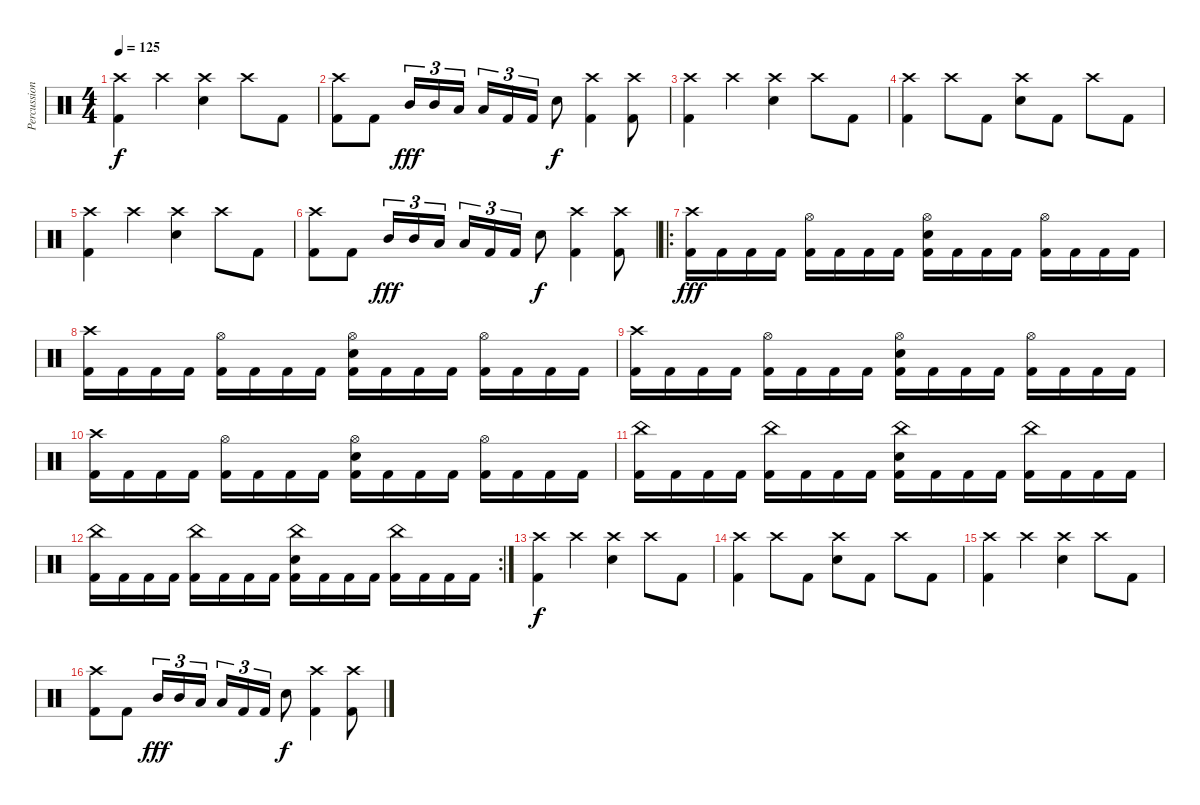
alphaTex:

\track ("Percussions" "Percussion") {instrument percussion}
\staff {score}
\articulation defaults
\ts (4 4)
\tempo 125
\clef neutral
\ks c
("Crash high (hit)" "Kick (hit) 2").4{dy f} "Crash high (hit)".4 ("Crash high (hit)" "Electric Snare (hit)").4 "Crash high (hit)".8 "Kick (hit) 2".8 |
("Crash high (hit)" "Kick (hit) 2").8 "Kick (hit) 2".8 "Mid Tom (hit)".16{tu (3 2) dy fff} "Mid Tom (hit)".16{tu (3 2)} "Low Tom (hit)".16{tu (3 2) beam splitsecondary} "Low Tom (hit)".16{tu (3 2)} "Kick (hit) 2".16{tu (3 2)} "Kick (hit) 2".16{tu (3 2)} "Electric Snare (hit)".8{dy f} ("Crash high (hit)" "Kick (hit) 2").4 ("Crash high (hit)" "Kick (hit) 2").8 |
("Crash high (hit)" "Kick (hit) 2").4 "Crash high (hit)".4 ("Crash high (hit)" "Electric Snare (hit)").4 "Crash high (hit)".8 "Kick (hit) 2".8 |
("Crash high (hit)" "Kick (hit) 2").4 "Crash high (hit)".8 "Kick (hit) 2".8 ("Crash high (hit)" "Electric Snare (hit)").8 "Kick (hit) 2".8 "Crash high (hit)".8 "Kick (hit) 2".8 |
("Crash high (hit)" "Kick (hit) 2").4 "Crash high (hit)".4 ("Crash high (hit)" "Electric Snare (hit)").4 "Crash high (hit)".8 "Kick (hit) 2".8 |
("Crash high (hit)" "Kick (hit) 2").8 "Kick (hit) 2".8 "Mid Tom (hit)".16{tu (3 2) dy fff} "Mid Tom (hit)".16{tu (3 2)} "Low Tom (hit)".16{tu (3 2) beam splitsecondary} "Low Tom (hit)".16{tu (3 2)} "Kick (hit) 2".16{tu (3 2)} "Kick (hit) 2".16{tu (3 2)} "Electric Snare (hit)".8{dy f} ("Crash high (hit)" "Kick (hit) 2").4 ("Crash high (hit)" "Kick (hit) 2").8 |
\ro
("Crash high (hit)" "Kick (hit) 2").16{dy fff} "Kick (hit) 2".16 "Kick (hit) 2".16 "Kick (hit) 2".16 ("Hi-Hat (open)" "Kick (hit) 2").16 "Kick (hit) 2".16 "Kick (hit) 2".16 "Kick (hit) 2".16 ("Hi-Hat (open)" "Electric Snare (hit)" "Kick (hit) 2").16 "Kick (hit) 2".16 "Kick (hit) 2".16 "Kick (hit) 2".16 ("Hi-Hat (open)" "Kick (hit) 2").16 "Kick (hit) 2".16 "Kick (hit) 2".16 "Kick (hit) 2".16 |
("Crash high (hit)" "Kick (hit) 2").16 "Kick (hit) 2".16 "Kick (hit) 2".16 "Kick (hit) 2".16 ("Hi-Hat (open)" "Kick (hit) 2").16 "Kick (hit) 2".16 "Kick (hit) 2".16 "Kick (hit) 2".16 ("Hi-Hat (open)" "Electric Snare (hit)" "Kick (hit) 2").16 "Kick (hit) 2".16 "Kick (hit) 2".16 "Kick (hit) 2".16 ("Hi-Hat (open)" "Kick (hit) 2").16 "Kick (hit) 2".16 "Kick (hit) 2".16 "Kick (hit) 2".16 |
("Crash high (hit)" "Kick (hit) 2").16 "Kick (hit) 2".16 "Kick (hit) 2".16 "Kick (hit) 2".16 ("Hi-Hat (open)" "Kick (hit) 2").16 "Kick (hit) 2".16 "Kick (hit) 2".16 "Kick (hit) 2".16 ("Hi-Hat (open)" "Electric Snare (hit)" "Kick (hit) 2").16 "Kick (hit) 2".16 "Kick (hit) 2".16 "Kick (hit) 2".16 ("Hi-Hat (open)" "Kick (hit) 2").16 "Kick (hit) 2".16 "Kick (hit) 2".16 "Kick (hit) 2".16 |
("Crash high (hit)" "Kick (hit) 2").16 "Kick (hit) 2".16 "Kick (hit) 2".16 "Kick (hit) 2".16 ("Hi-Hat (open)" "Kick (hit) 2").16 "Kick (hit) 2".16 "Kick (hit) 2".16 "Kick (hit) 2".16 ("Hi-Hat (open)" "Electric Snare (hit)" "Kick (hit) 2").16 "Kick (hit) 2".16 "Kick (hit) 2".16 "Kick (hit) 2".16 ("Hi-Hat (open)" "Kick (hit) 2").16 "Kick (hit) 2".16 "Kick (hit) 2".16 "Kick (hit) 2".16 |
("China (hit)" "Kick (hit) 2").16 "Kick (hit) 2".16 "Kick (hit) 2".16 "Kick (hit) 2".16 ("China (hit)" "Kick (hit) 2").16 "Kick (hit) 2".16 "Kick (hit) 2".16 "Kick (hit) 2".16 ("China (hit)" "Electric Snare (hit)" "Kick (hit) 2").16 "Kick (hit) 2".16 "Kick (hit) 2".16 "Kick (hit) 2".16 ("China (hit)" "Kick (hit) 2").16 "Kick (hit) 2".16 "Kick (hit) 2".16 "Kick (hit) 2".16 |
\rc 2
("China (hit)" "Kick (hit) 2").16 "Kick (hit) 2".16 "Kick (hit) 2".16 "Kick (hit) 2".16 ("China (hit)" "Kick (hit) 2").16 "Kick (hit) 2".16 "Kick (hit) 2".16 "Kick (hit) 2".16 ("China (hit)" "Electric Snare (hit)" "Kick (hit) 2").16 "Kick (hit) 2".16 "Kick (hit) 2".16 "Kick (hit) 2".16 ("China (hit)" "Kick (hit) 2").16 "Kick (hit) 2".16 "Kick (hit) 2".16 "Kick (hit) 2".16 |
("Crash high (hit)" "Kick (hit) 2").4{dy f} "Crash high (hit)".4 ("Crash high (hit)" "Electric Snare (hit)").4 "Crash high (hit)".8 "Kick (hit) 2".8 |
("Crash high (hit)" "Kick (hit) 2").4 "Crash high (hit)".8 "Kick (hit) 2".8 ("Crash high (hit)" "Electric Snare (hit)").8 "Kick (hit) 2".8 "Crash high (hit)".8 "Kick (hit) 2".8 |
("Crash high (hit)" "Kick (hit) 2").4 "Crash high (hit)".4 ("Crash high (hit)" "Electric Snare (hit)").4 "Crash high (hit)".8 "Kick (hit) 2".8 |
("Crash high (hit)" "Kick (hit) 2").8 "Kick (hit) 2".8 "Mid Tom (hit)".16{tu (3 2) dy fff} "Mid Tom (hit)".16{tu (3 2)} "Low Tom (hit)".16{tu (3 2) beam splitsecondary} "Low Tom (hit)".16{tu (3 2)} "Kick (hit) 2".16{tu (3 2)} "Kick (hit) 2".16{tu (3 2)} "Electric Snare (hit)".8{dy f} ("Crash high (hit)" "Kick (hit) 2").4 ("Crash high (hit)" "Kick (hit) 2").8
